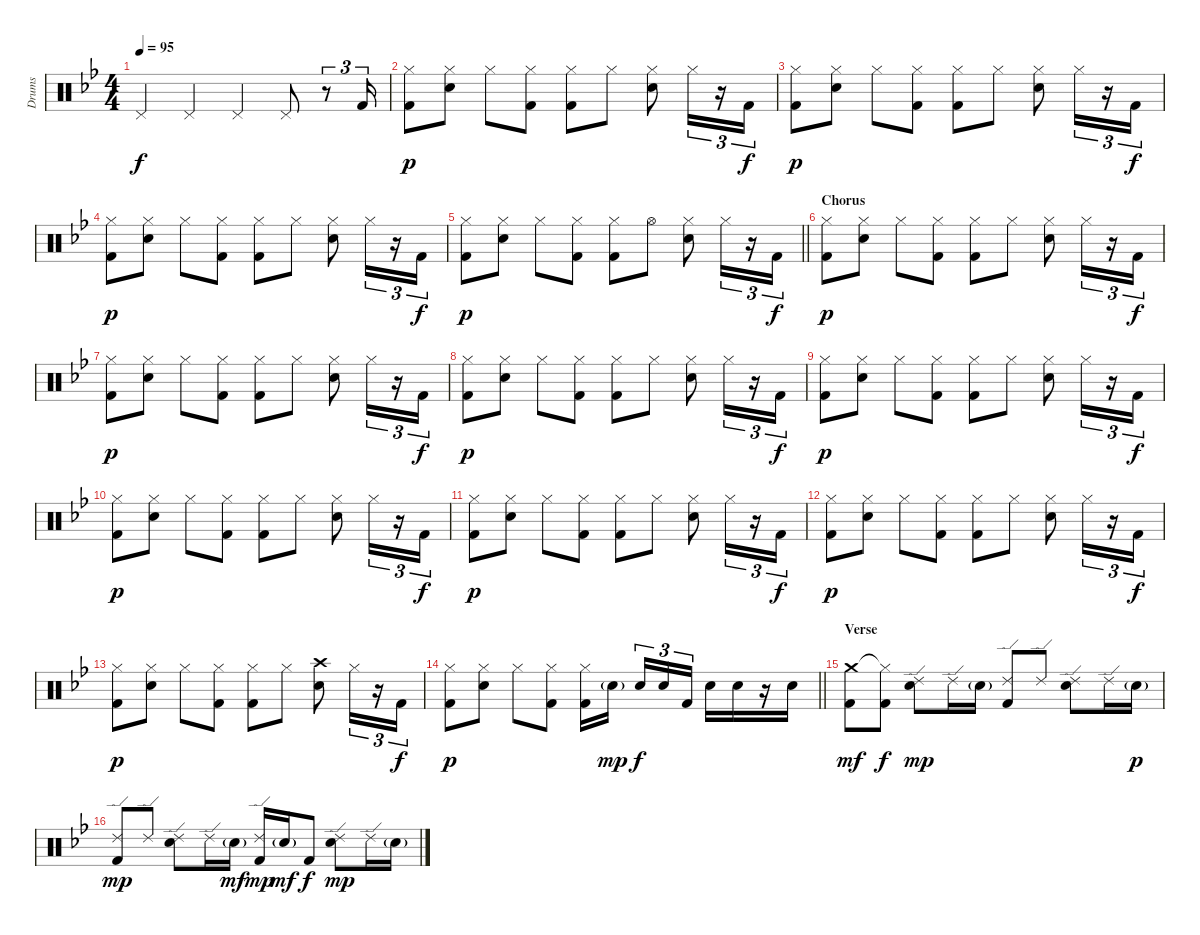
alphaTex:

\track ("Drums" "Drums") {instrument percussion}
\staff {score}
\articulation defaults
\ts (4 4)
\tempo 95
\clef neutral
\ks gminor "Pedal Hi-Hat (hit)".4{dy f} "Pedal Hi-Hat (hit)".4 "Pedal Hi-Hat (hit)".4 "Pedal Hi-Hat (hit)".8
r.8{tu (3 2)} "Kick (hit) 2".16{tu (3 2)} |
("Hi-Hat (closed)" "Kick (hit) 2").8{dy p} ("Hi-Hat (closed)" "Electric Snare (hit)").8 "Hi-Hat (closed)".8 ("Hi-Hat (closed)" "Kick (hit) 2").8 ("Hi-Hat (closed)" "Kick (hit) 2").8 "Hi-Hat (closed)".8 ("Hi-Hat (closed)" "Electric Snare (hit)").8 "Hi-Hat (closed)".16{tu (3 2)} r.16{tu (3 2)} "Kick (hit) 2".16{tu (3 2) dy f} |
("Hi-Hat (closed)" "Kick (hit) 2").8{dy p} ("Hi-Hat (closed)" "Electric Snare (hit)").8 "Hi-Hat (closed)".8 ("Hi-Hat (closed)" "Kick (hit) 2").8 ("Hi-Hat (closed)" "Kick (hit) 2").8 "Hi-Hat (closed)".8 ("Hi-Hat (closed)" "Electric Snare (hit)").8 "Hi-Hat (closed)".16{tu (3 2)} r.16{tu (3 2)} "Kick (hit) 2".16{tu (3 2) dy f} |
("Hi-Hat (closed)" "Kick (hit) 2").8{dy p} ("Hi-Hat (closed)" "Electric Snare (hit)").8 "Hi-Hat (closed)".8 ("Hi-Hat (closed)" "Kick (hit) 2").8 ("Hi-Hat (closed)" "Kick (hit) 2").8 "Hi-Hat (closed)".8 ("Hi-Hat (closed)" "Electric Snare (hit)").8 "Hi-Hat (closed)".16{tu (3 2)} r.16{tu (3 2)} "Kick (hit) 2".16{tu (3 2) dy f} |
\barLineRight lightlight
("Hi-Hat (closed)" "Kick (hit) 2").8{dy p} ("Hi-Hat (closed)" "Electric Snare (hit)").8 "Hi-Hat (closed)".8 ("Hi-Hat (closed)" "Kick (hit) 2").8 ("Hi-Hat (closed)" "Kick (hit) 2").8 "Hi-Hat (open)".8 ("Hi-Hat (closed)" "Electric Snare (hit)").8 "Hi-Hat (closed)".16{tu (3 2)} r.16{tu (3 2)} "Kick (hit) 2".16{tu (3 2) dy f} |
\section ("" "Chorus")
("Hi-Hat (closed)" "Kick (hit) 2").8{dy p} ("Hi-Hat (closed)" "Electric Snare (hit)").8 "Hi-Hat (closed)".8 ("Hi-Hat (closed)" "Kick (hit) 2").8 ("Hi-Hat (closed)" "Kick (hit) 2").8 "Hi-Hat (closed)".8 ("Hi-Hat (closed)" "Electric Snare (hit)").8 "Hi-Hat (closed)".16{tu (3 2)} r.16{tu (3 2)} "Kick (hit) 2".16{tu (3 2) dy f} |
("Hi-Hat (closed)" "Kick (hit) 2").8{dy p} ("Hi-Hat (closed)" "Electric Snare (hit)").8 "Hi-Hat (closed)".8 ("Hi-Hat (closed)" "Kick (hit) 2").8 ("Hi-Hat (closed)" "Kick (hit) 2").8 "Hi-Hat (closed)".8 ("Hi-Hat (closed)" "Electric Snare (hit)").8 "Hi-Hat (closed)".16{tu (3 2)} r.16{tu (3 2)} "Kick (hit) 2".16{tu (3 2) dy f} |
("Hi-Hat (closed)" "Kick (hit) 2").8{dy p} ("Hi-Hat (closed)" "Electric Snare (hit)").8 "Hi-Hat (closed)".8 ("Hi-Hat (closed)" "Kick (hit) 2").8 ("Hi-Hat (closed)" "Kick (hit) 2").8 "Hi-Hat (closed)".8 ("Hi-Hat (closed)" "Electric Snare (hit)").8 "Hi-Hat (closed)".16{tu (3 2)} r.16{tu (3 2)} "Kick (hit) 2".16{tu (3 2) dy f} |
("Hi-Hat (closed)" "Kick (hit) 2").8{dy p} ("Hi-Hat (closed)" "Electric Snare (hit)").8 "Hi-Hat (closed)".8 ("Hi-Hat (closed)" "Kick (hit) 2").8 ("Hi-Hat (closed)" "Kick (hit) 2").8 "Hi-Hat (closed)".8 ("Hi-Hat (closed)" "Electric Snare (hit)").8 "Hi-Hat (closed)".16{tu (3 2)} r.16{tu (3 2)} "Kick (hit) 2".16{tu (3 2) dy f} |
("Hi-Hat (closed)" "Kick (hit) 2").8{dy p} ("Hi-Hat (closed)" "Electric Snare (hit)").8 "Hi-Hat (closed)".8 ("Hi-Hat (closed)" "Kick (hit) 2").8 ("Hi-Hat (closed)" "Kick (hit) 2").8 "Hi-Hat (closed)".8 ("Hi-Hat (closed)" "Electric Snare (hit)").8 "Hi-Hat (closed)".16{tu (3 2)} r.16{tu (3 2)} "Kick (hit) 2".16{tu (3 2) dy f} |
("Hi-Hat (closed)" "Kick (hit) 2").8{dy p} ("Hi-Hat (closed)" "Electric Snare (hit)").8 "Hi-Hat (closed)".8 ("Hi-Hat (closed)" "Kick (hit) 2").8 ("Hi-Hat (closed)" "Kick (hit) 2").8 "Hi-Hat (closed)".8 ("Hi-Hat (closed)" "Electric Snare (hit)").8 "Hi-Hat (closed)".16{tu (3 2)} r.16{tu (3 2)} "Kick (hit) 2".16{tu (3 2) dy f} |
("Hi-Hat (closed)" "Kick (hit) 2").8{dy p} ("Hi-Hat (closed)" "Electric Snare (hit)").8 "Hi-Hat (closed)".8 ("Hi-Hat (closed)" "Kick (hit) 2").8 ("Hi-Hat (closed)" "Kick (hit) 2").8 "Hi-Hat (closed)".8 ("Hi-Hat (closed)" "Electric Snare (hit)").8 "Hi-Hat (closed)".16{tu (3 2)} r.16{tu (3 2)} "Kick (hit) 2".16{tu (3 2) dy f} |
("Hi-Hat (closed)" "Kick (hit) 2").8{dy p} ("Hi-Hat (closed)" "Electric Snare (hit)").8 "Hi-Hat (closed)".8 ("Hi-Hat (closed)" "Kick (hit) 2").8 ("Hi-Hat (closed)" "Kick (hit) 2").8 "Hi-Hat (closed)".8 ("Crash high (hit)" "Electric Snare (hit)").8 "Hi-Hat (closed)".16{tu (3 2)} r.16{tu (3 2)} "Kick (hit) 2".16{tu (3 2) dy f} |
\barLineRight lightlight
("Hi-Hat (closed)" "Kick (hit) 2").8{dy p} ("Hi-Hat (closed)" "Electric Snare (hit)").8 "Hi-Hat (closed)".8 ("Hi-Hat (closed)" "Kick (hit) 2").8 ("Hi-Hat (closed)" "Kick (hit) 2").16 "Electric Snare (hit)"{g}.16{dy mp beam splitsecondary} "Electric Snare (hit)".16{tu (3 2) dy f} "Electric Snare (hit)".16{tu (3 2)} "Kick (hit) 2".16{tu (3 2)} "Electric Snare (hit)".16 "Electric Snare (hit)".16 r.16 "Electric Snare (hit)".16 |
\section ("" "Verse")
("Crash medium (hit)" "Kick (hit) 2").8{dy mf} ("Hi-Hat (closed)"{t} "Kick (hit) 2").8{dy f} ("Ride (edge) 2" "Electric Snare (hit)").8{dy mp} "Ride (edge) 2".16 "Electric Snare (hit)"{g}.16 ("Ride (edge) 2" "Kick (hit) 2").8 "Ride (edge) 2".8 ("Ride (edge) 2" "Electric Snare (hit)").8 "Ride (edge) 2".16 "Electric Snare (hit)"{g}.16{dy p} |
("Ride (edge) 2" "Kick (hit) 2").8{dy mp} "Ride (edge) 2".8 ("Ride (edge) 2" "Electric Snare (hit)").8 "Ride (edge) 2".16 "Electric Snare (hit)"{g}.16{dy mf} ("Ride (edge) 2" "Kick (hit) 2").16{dy mp} "Electric Snare (hit)"{g}.16{dy mf} "Kick (hit) 2".8{dy f} ("Ride (edge) 2" "Electric Snare (hit)").8{dy mp} "Ride (edge) 2".16 "Electric Snare (hit)"{g}.16
